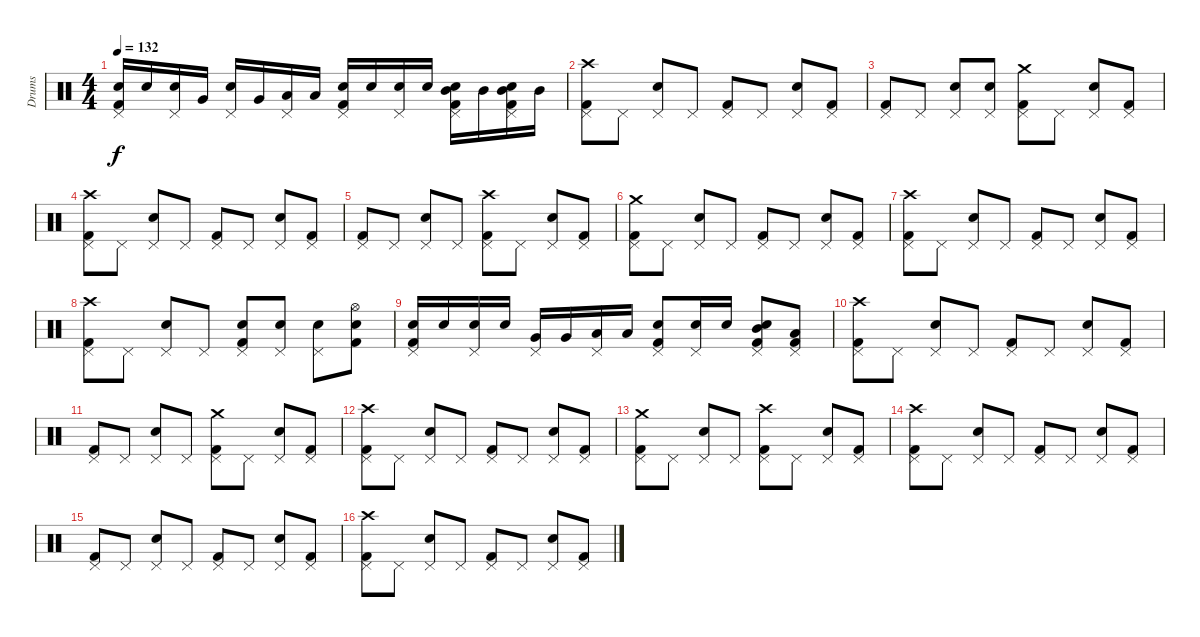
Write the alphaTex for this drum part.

\track ("Drums" "Drums") {instrument percussion}
\staff {score}
\articulation defaults
\ts (4 4)
\tempo 132
\clef neutral
\ks c
("Electric Snare (hit)" "Pedal Hi-Hat (hit)" "Kick (hit) 2").16{dy f} "Electric Snare (hit)".16 ("Electric Snare (hit)" "Pedal Hi-Hat (hit)").16 "Very Low Tom (hit)".16 ("Electric Snare (hit)" "Pedal Hi-Hat (hit)").16 "Very Low Tom (hit)".16 ("Low Floor Tom (hit)" "Pedal Hi-Hat (hit)").16 "Low Floor Tom (hit)".16 ("Electric Snare (hit)" "Pedal Hi-Hat (hit)" "Kick (hit) 2").16 "Electric Snare (hit)".16 ("Electric Snare (hit)" "Pedal Hi-Hat (hit)").16 "Electric Snare (hit)".16 ("Electric Snare (hit)" "Mid Tom (hit)" "Pedal Hi-Hat (hit)" "Kick (hit) 2").16 "Mid Tom (hit)".16 ("Electric Snare (hit)" "Mid Tom (hit)" "Pedal Hi-Hat (hit)" "Kick (hit) 2").16 "Mid Tom (hit)".16 |
("Pedal Hi-Hat (hit)" "Kick (hit) 2" "Crash high (hit)").8 "Pedal Hi-Hat (hit)".8 ("Electric Snare (hit)" "Pedal Hi-Hat (hit)").8 "Pedal Hi-Hat (hit)".8 ("Pedal Hi-Hat (hit)" "Kick (hit) 2").8 "Pedal Hi-Hat (hit)".8 ("Electric Snare (hit)" "Pedal Hi-Hat (hit)").8 ("Pedal Hi-Hat (hit)" "Kick (hit) 2").8 |
("Pedal Hi-Hat (hit)" "Kick (hit) 2").8 "Pedal Hi-Hat (hit)".8 ("Electric Snare (hit)" "Pedal Hi-Hat (hit)").8 ("Electric Snare (hit)" "Pedal Hi-Hat (hit)").8 ("Pedal Hi-Hat (hit)" "Kick (hit) 2" "Crash medium (hit)").8 "Pedal Hi-Hat (hit)".8 ("Electric Snare (hit)" "Pedal Hi-Hat (hit)").8 ("Pedal Hi-Hat (hit)" "Kick (hit) 2").8 |
("Pedal Hi-Hat (hit)" "Kick (hit) 2" "Crash high (hit)").8 "Pedal Hi-Hat (hit)".8 ("Electric Snare (hit)" "Pedal Hi-Hat (hit)").8 "Pedal Hi-Hat (hit)".8 ("Pedal Hi-Hat (hit)" "Kick (hit) 2").8 "Pedal Hi-Hat (hit)".8 ("Electric Snare (hit)" "Pedal Hi-Hat (hit)").8 ("Pedal Hi-Hat (hit)" "Kick (hit) 2").8 |
("Pedal Hi-Hat (hit)" "Kick (hit) 2").8 "Pedal Hi-Hat (hit)".8 ("Electric Snare (hit)" "Pedal Hi-Hat (hit)").8 "Pedal Hi-Hat (hit)".8 ("Pedal Hi-Hat (hit)" "Kick (hit) 2" "Crash high (hit)").8 "Pedal Hi-Hat (hit)".8 ("Electric Snare (hit)" "Pedal Hi-Hat (hit)").8 ("Pedal Hi-Hat (hit)" "Kick (hit) 2").8 |
("Pedal Hi-Hat (hit)" "Kick (hit) 2" "Crash medium (hit)").8 "Pedal Hi-Hat (hit)".8 ("Electric Snare (hit)" "Pedal Hi-Hat (hit)").8 "Pedal Hi-Hat (hit)".8 ("Pedal Hi-Hat (hit)" "Kick (hit) 2").8 "Pedal Hi-Hat (hit)".8 ("Electric Snare (hit)" "Pedal Hi-Hat (hit)").8 ("Pedal Hi-Hat (hit)" "Kick (hit) 2").8 |
("Pedal Hi-Hat (hit)" "Kick (hit) 2" "Crash high (hit)").8 "Pedal Hi-Hat (hit)".8 ("Electric Snare (hit)" "Pedal Hi-Hat (hit)").8 "Pedal Hi-Hat (hit)".8 ("Pedal Hi-Hat (hit)" "Kick (hit) 2").8 "Pedal Hi-Hat (hit)".8 ("Electric Snare (hit)" "Pedal Hi-Hat (hit)").8 ("Pedal Hi-Hat (hit)" "Kick (hit) 2").8 |
("Pedal Hi-Hat (hit)" "Kick (hit) 2" "Crash high (hit)").8 "Pedal Hi-Hat (hit)".8 ("Electric Snare (hit)" "Pedal Hi-Hat (hit)").8 "Pedal Hi-Hat (hit)".8 ("Electric Snare (hit)" "Pedal Hi-Hat (hit)" "Kick (hit) 2").8 ("Electric Snare (hit)" "Pedal Hi-Hat (hit)").8 ("Electric Snare (hit)" "Pedal Hi-Hat (hit)").8 ("Electric Snare (hit)" "Hi-Hat (open)" "Kick (hit) 2").8 |
("Electric Snare (hit)" "Pedal Hi-Hat (hit)" "Kick (hit) 2").16 "Electric Snare (hit)".16 ("Electric Snare (hit)" "Pedal Hi-Hat (hit)").16 "Electric Snare (hit)".16 ("Very Low Tom (hit)" "Pedal Hi-Hat (hit)").16 "Very Low Tom (hit)".16 ("Low Tom (hit)" "Pedal Hi-Hat (hit)").16 "Low Tom (hit)".16 ("Electric Snare (hit)" "Pedal Hi-Hat (hit)" "Kick (hit) 2").8 ("Electric Snare (hit)" "Pedal Hi-Hat (hit)").16 "Electric Snare (hit)".16 ("Electric Snare (hit)" "Mid Tom (hit)" "Pedal Hi-Hat (hit)" "Kick (hit) 2").8 ("Low Tom (hit)" "Pedal Hi-Hat (hit)" "Kick (hit) 2").8 |
("Pedal Hi-Hat (hit)" "Kick (hit) 2" "Crash high (hit)").8 "Pedal Hi-Hat (hit)".8 ("Electric Snare (hit)" "Pedal Hi-Hat (hit)").8 "Pedal Hi-Hat (hit)".8 ("Pedal Hi-Hat (hit)" "Kick (hit) 2").8 "Pedal Hi-Hat (hit)".8 ("Electric Snare (hit)" "Pedal Hi-Hat (hit)").8 ("Pedal Hi-Hat (hit)" "Kick (hit) 2").8 |
("Pedal Hi-Hat (hit)" "Kick (hit) 2").8 "Pedal Hi-Hat (hit)".8 ("Electric Snare (hit)" "Pedal Hi-Hat (hit)").8 "Pedal Hi-Hat (hit)".8 ("Pedal Hi-Hat (hit)" "Kick (hit) 2" "Crash medium (hit)").8 "Pedal Hi-Hat (hit)".8 ("Electric Snare (hit)" "Pedal Hi-Hat (hit)").8 ("Pedal Hi-Hat (hit)" "Kick (hit) 2").8 |
("Pedal Hi-Hat (hit)" "Kick (hit) 2" "Crash high (hit)").8 "Pedal Hi-Hat (hit)".8 ("Electric Snare (hit)" "Pedal Hi-Hat (hit)").8 "Pedal Hi-Hat (hit)".8 ("Pedal Hi-Hat (hit)" "Kick (hit) 2").8 "Pedal Hi-Hat (hit)".8 ("Electric Snare (hit)" "Pedal Hi-Hat (hit)").8 ("Pedal Hi-Hat (hit)" "Kick (hit) 2").8 |
("Pedal Hi-Hat (hit)" "Kick (hit) 2" "Crash medium (hit)").8 "Pedal Hi-Hat (hit)".8 ("Electric Snare (hit)" "Pedal Hi-Hat (hit)").8 "Pedal Hi-Hat (hit)".8 ("Pedal Hi-Hat (hit)" "Kick (hit) 2" "Crash high (hit)").8 "Pedal Hi-Hat (hit)".8 ("Electric Snare (hit)" "Pedal Hi-Hat (hit)").8 ("Pedal Hi-Hat (hit)" "Kick (hit) 2").8 |
("Pedal Hi-Hat (hit)" "Kick (hit) 2" "Crash high (hit)").8 "Pedal Hi-Hat (hit)".8 ("Electric Snare (hit)" "Pedal Hi-Hat (hit)").8 "Pedal Hi-Hat (hit)".8 ("Pedal Hi-Hat (hit)" "Kick (hit) 2").8 "Pedal Hi-Hat (hit)".8 ("Electric Snare (hit)" "Pedal Hi-Hat (hit)").8 ("Pedal Hi-Hat (hit)" "Kick (hit) 2").8 |
("Pedal Hi-Hat (hit)" "Kick (hit) 2").8 "Pedal Hi-Hat (hit)".8 ("Electric Snare (hit)" "Pedal Hi-Hat (hit)").8 "Pedal Hi-Hat (hit)".8 ("Pedal Hi-Hat (hit)" "Kick (hit) 2").8 "Pedal Hi-Hat (hit)".8 ("Electric Snare (hit)" "Pedal Hi-Hat (hit)").8 ("Pedal Hi-Hat (hit)" "Kick (hit) 2").8 |
("Pedal Hi-Hat (hit)" "Kick (hit) 2" "Crash high (hit)").8 "Pedal Hi-Hat (hit)".8 ("Electric Snare (hit)" "Pedal Hi-Hat (hit)").8 "Pedal Hi-Hat (hit)".8 ("Pedal Hi-Hat (hit)" "Kick (hit) 2").8 "Pedal Hi-Hat (hit)".8 ("Electric Snare (hit)" "Pedal Hi-Hat (hit)").8 ("Pedal Hi-Hat (hit)" "Kick (hit) 2").8
